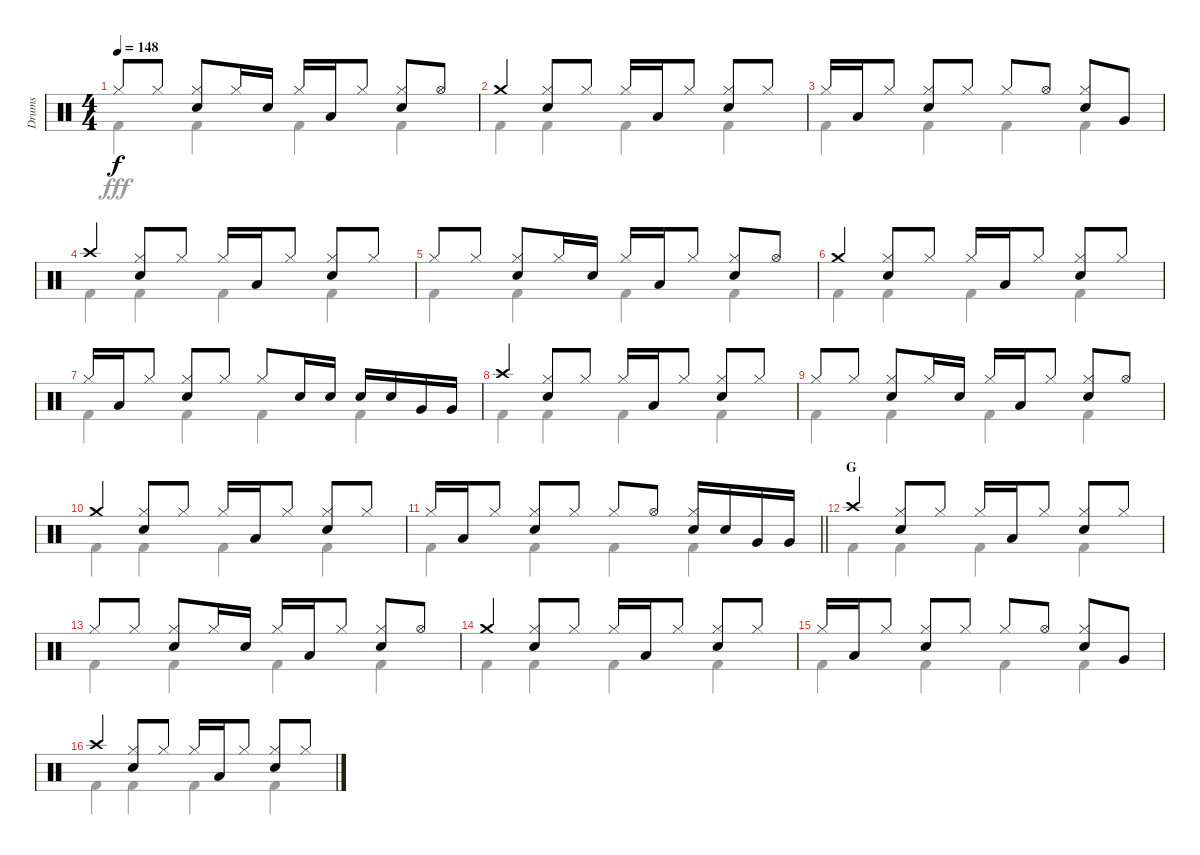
\track ("Drums" "Drums") {instrument percussion}
\staff {score}
\articulation defaults
\voice
\ts (4 4)
\tempo 148
\clef neutral
\ks c "Hi-Hat (closed)".8{dy f} "Hi-Hat (closed)".8
("Hi-Hat (closed)" "Snare (hit) 2").8 "Hi-Hat (closed)".16 "Snare (hit) 2".16 "Hi-Hat (closed)".16 "Low Tom (hit)".16 "Hi-Hat (closed)".8 ("Hi-Hat (closed)" "Snare (hit) 2").8 "Hi-Hat (open)".8 |
"Crash medium (hit)".4 ("Hi-Hat (closed)" "Snare (hit) 2").8 "Hi-Hat (closed)".8 "Hi-Hat (closed)".16 "Low Tom (hit)".16 "Hi-Hat (closed)".8 ("Hi-Hat (closed)" "Snare (hit) 2").8 "Hi-Hat (closed)".8 |
"Hi-Hat (closed)".16 "Low Tom (hit)".16 "Hi-Hat (closed)".8 ("Hi-Hat (closed)" "Snare (hit) 2").8 "Hi-Hat (closed)".8 "Hi-Hat (closed)".8 "Hi-Hat (open)".8 ("Hi-Hat (closed)" "Snare (hit) 2").8 "Very Low Tom (hit)".8 |
"Crash high (hit)".4 ("Hi-Hat (closed)" "Snare (hit) 2").8 "Hi-Hat (closed)".8 "Hi-Hat (closed)".16 "Low Tom (hit)".16 "Hi-Hat (closed)".8 ("Hi-Hat (closed)" "Snare (hit) 2").8 "Hi-Hat (closed)".8 |
"Hi-Hat (closed)".8 "Hi-Hat (closed)".8 ("Hi-Hat (closed)" "Snare (hit) 2").8 "Hi-Hat (closed)".16 "Snare (hit) 2".16 "Hi-Hat (closed)".16 "Low Tom (hit)".16 "Hi-Hat (closed)".8 ("Hi-Hat (closed)" "Snare (hit) 2").8 "Hi-Hat (open)".8 |
"Crash medium (hit)".4 ("Hi-Hat (closed)" "Snare (hit) 2").8 "Hi-Hat (closed)".8 "Hi-Hat (closed)".16 "Low Tom (hit)".16 "Hi-Hat (closed)".8 ("Hi-Hat (closed)" "Snare (hit) 2").8 "Hi-Hat (closed)".8 |
"Hi-Hat (closed)".16 "Low Tom (hit)".16 "Hi-Hat (closed)".8 ("Hi-Hat (closed)" "Snare (hit) 2").8 "Hi-Hat (closed)".8 "Hi-Hat (closed)".8 "Snare (hit) 2".16 "Snare (hit) 2".16 "Snare (hit) 2".16 "Snare (hit) 2".16 "Very Low Tom (hit)".16 "Very Low Tom (hit)".16 |
"Crash high (hit)".4 ("Hi-Hat (closed)" "Snare (hit) 2").8 "Hi-Hat (closed)".8 "Hi-Hat (closed)".16 "Low Tom (hit)".16 "Hi-Hat (closed)".8 ("Hi-Hat (closed)" "Snare (hit) 2").8 "Hi-Hat (closed)".8 |
"Hi-Hat (closed)".8 "Hi-Hat (closed)".8 ("Hi-Hat (closed)" "Snare (hit) 2").8 "Hi-Hat (closed)".16 "Snare (hit) 2".16 "Hi-Hat (closed)".16 "Low Tom (hit)".16 "Hi-Hat (closed)".8 ("Hi-Hat (closed)" "Snare (hit) 2").8 "Hi-Hat (open)".8 |
"Crash medium (hit)".4 ("Hi-Hat (closed)" "Snare (hit) 2").8 "Hi-Hat (closed)".8 "Hi-Hat (closed)".16 "Low Tom (hit)".16 "Hi-Hat (closed)".8 ("Hi-Hat (closed)" "Snare (hit) 2").8 "Hi-Hat (closed)".8 |
\barLineRight lightlight "Hi-Hat (closed)".16 "Low Tom (hit)".16 "Hi-Hat (closed)".8
("Hi-Hat (closed)" "Snare (hit) 2").8 "Hi-Hat (closed)".8 "Hi-Hat (closed)".8 "Hi-Hat (open)".8 ("Hi-Hat (closed)" "Snare (hit) 2").16 "Snare (hit) 2".16 "Very Low Tom (hit)".16 "Very Low Tom (hit)".16 |
\section ("" "G")
"Crash high (hit)".4 ("Hi-Hat (closed)" "Snare (hit) 2").8 "Hi-Hat (closed)".8 "Hi-Hat (closed)".16 "Low Tom (hit)".16 "Hi-Hat (closed)".8 ("Hi-Hat (closed)" "Snare (hit) 2").8 "Hi-Hat (closed)".8 |
"Hi-Hat (closed)".8 "Hi-Hat (closed)".8 ("Hi-Hat (closed)" "Snare (hit) 2").8 "Hi-Hat (closed)".16 "Snare (hit) 2".16 "Hi-Hat (closed)".16 "Low Tom (hit)".16 "Hi-Hat (closed)".8 ("Hi-Hat (closed)" "Snare (hit) 2").8 "Hi-Hat (open)".8 |
"Crash medium (hit)".4 ("Hi-Hat (closed)" "Snare (hit) 2").8 "Hi-Hat (closed)".8 "Hi-Hat (closed)".16 "Low Tom (hit)".16 "Hi-Hat (closed)".8 ("Hi-Hat (closed)" "Snare (hit) 2").8 "Hi-Hat (closed)".8 |
"Hi-Hat (closed)".16 "Low Tom (hit)".16 "Hi-Hat (closed)".8 ("Hi-Hat (closed)" "Snare (hit) 2").8 "Hi-Hat (closed)".8 "Hi-Hat (closed)".8 "Hi-Hat (open)".8 ("Hi-Hat (closed)" "Snare (hit) 2").8 "Very Low Tom (hit)".8 |
"Crash high (hit)".4 ("Hi-Hat (closed)" "Snare (hit) 2").8 "Hi-Hat (closed)".8 "Hi-Hat (closed)".16 "Low Tom (hit)".16 "Hi-Hat (closed)".8 ("Hi-Hat (closed)" "Snare (hit) 2").8 "Hi-Hat (closed)".8
\voice
\clef neutral
\ottava regular
\simile none
\ks c "Kick (hit) 2".4{dy fff} "Kick (hit) 2".4 "Kick (hit) 2".4 "Kick (hit) 2".4
|
"Kick (hit) 2".4 "Kick (hit) 2".4 "Kick (hit) 2".4 "Kick (hit) 2".4 |
"Kick (hit) 2".4 "Kick (hit) 2".4 "Kick (hit) 2".4 "Kick (hit) 2".4 |
"Kick (hit) 2".4 "Kick (hit) 2".4 "Kick (hit) 2".4 "Kick (hit) 2".4 |
"Kick (hit) 2".4 "Kick (hit) 2".4 "Kick (hit) 2".4 "Kick (hit) 2".4 |
"Kick (hit) 2".4 "Kick (hit) 2".4 "Kick (hit) 2".4 "Kick (hit) 2".4 |
"Kick (hit) 2".4 "Kick (hit) 2".4 "Kick (hit) 2".4 "Kick (hit) 2".4 |
"Kick (hit) 2".4 "Kick (hit) 2".4 "Kick (hit) 2".4 "Kick (hit) 2".4 |
"Kick (hit) 2".4 "Kick (hit) 2".4 "Kick (hit) 2".4 "Kick (hit) 2".4 |
"Kick (hit) 2".4 "Kick (hit) 2".4 "Kick (hit) 2".4 "Kick (hit) 2".4 |
\barLineRight lightlight "Kick (hit) 2".4 "Kick (hit) 2".4 "Kick (hit) 2".4 "Kick (hit) 2".4
|
"Kick (hit) 2".4 "Kick (hit) 2".4 "Kick (hit) 2".4 "Kick (hit) 2".4 |
"Kick (hit) 2".4 "Kick (hit) 2".4 "Kick (hit) 2".4 "Kick (hit) 2".4 |
"Kick (hit) 2".4 "Kick (hit) 2".4 "Kick (hit) 2".4 "Kick (hit) 2".4 |
"Kick (hit) 2".4 "Kick (hit) 2".4 "Kick (hit) 2".4 "Kick (hit) 2".4 |
"Kick (hit) 2".4 "Kick (hit) 2".4 "Kick (hit) 2".4 "Kick (hit) 2".4
